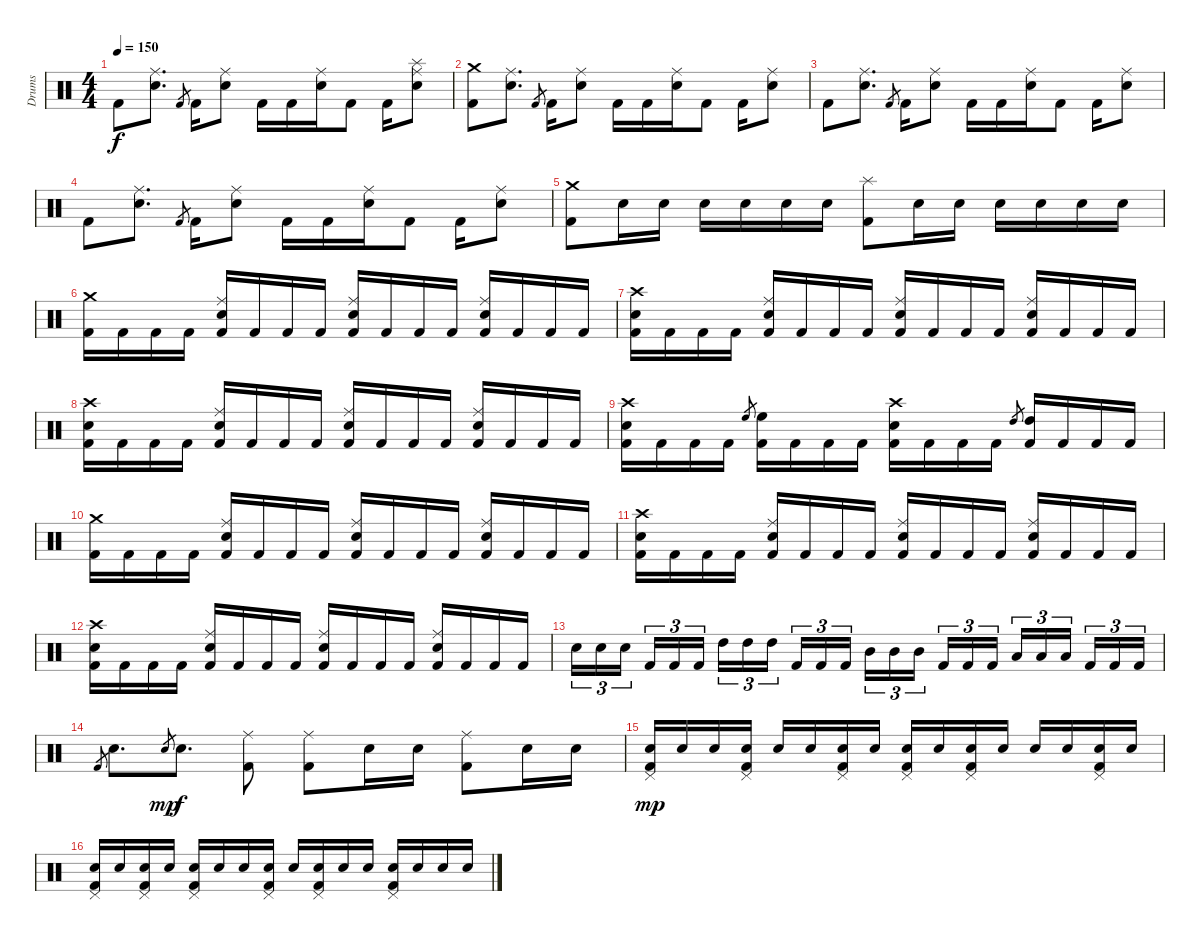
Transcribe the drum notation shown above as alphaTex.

\track ("Drums" "Drums") {instrument percussion}
\staff {score}
\articulation defaults
\ts (4 4)
\tempo 150
\clef neutral
\ks c "Kick (hit) 2".8{dy f}
("Ride (middle)" "Electric Snare (hit)").8{d} "Kick (hit) 2".8{gr} "Kick (hit) 2".16 ("Ride (middle)" "Electric Snare (hit)").8 "Kick (hit) 2".16 "Kick (hit) 2".16 ("Ride (middle)" "Electric Snare (hit)").16 "Kick (hit) 2".8 "Kick (hit) 2".16 ("Ride (middle)" "Splash (hit)" "Electric Snare (hit)").8 |
("Crash medium (hit)" "Kick (hit) 2").8 ("Ride (middle)" "Electric Snare (hit)").8{d} "Kick (hit) 2".8{gr} "Kick (hit) 2".16 ("Ride (middle)" "Electric Snare (hit)").8 "Kick (hit) 2".16 "Kick (hit) 2".16 ("Ride (middle)" "Electric Snare (hit)").16 "Kick (hit) 2".8 "Kick (hit) 2".16 ("Ride (middle)" "Electric Snare (hit)").8 |
"Kick (hit) 2".8 ("Ride (middle)" "Electric Snare (hit)").8{d} "Kick (hit) 2".8{gr} "Kick (hit) 2".16 ("Ride (middle)" "Electric Snare (hit)").8 "Kick (hit) 2".16 "Kick (hit) 2".16 ("Ride (middle)" "Electric Snare (hit)").16 "Kick (hit) 2".8 "Kick (hit) 2".16 ("Ride (middle)" "Electric Snare (hit)").8 |
"Kick (hit) 2".8 ("Ride (middle)" "Electric Snare (hit)").8{d} "Kick (hit) 2".8{gr} "Kick (hit) 2".16 ("Ride (middle)" "Electric Snare (hit)").8 "Kick (hit) 2".16 "Kick (hit) 2".16 ("Ride (middle)" "Electric Snare (hit)").16 "Kick (hit) 2".8 "Kick (hit) 2".16 ("Ride (middle)" "Electric Snare (hit)").8 |
("Crash medium (hit)" "Kick (hit) 2").8 "Electric Snare (hit)".16 "Electric Snare (hit)".16 "Electric Snare (hit)".16 "Electric Snare (hit)".16 "Electric Snare (hit)".16 "Electric Snare (hit)".16 ("Splash (hit)" "Kick (hit) 2").8 "Electric Snare (hit)".16 "Electric Snare (hit)".16 "Electric Snare (hit)".16 "Electric Snare (hit)".16 "Electric Snare (hit)".16 "Electric Snare (hit)".16 |
("Crash medium (hit)" "Kick (hit) 2").16 "Kick (hit) 2".16 "Kick (hit) 2".16 "Kick (hit) 2".16 ("Ride (middle)" "Electric Snare (hit)" "Kick (hit) 2").16 "Kick (hit) 2".16 "Kick (hit) 2".16 "Kick (hit) 2".16 ("Ride (middle)" "Electric Snare (hit)" "Kick (hit) 2").16 "Kick (hit) 2".16 "Kick (hit) 2".16 "Kick (hit) 2".16 ("Ride (middle)" "Electric Snare (hit)" "Kick (hit) 2").16 "Kick (hit) 2".16 "Kick (hit) 2".16 "Kick (hit) 2".16 |
("Crash high (hit)" "Electric Snare (hit)" "Kick (hit) 2").16 "Kick (hit) 2".16 "Kick (hit) 2".16 "Kick (hit) 2".16 ("Ride (middle)" "Electric Snare (hit)" "Kick (hit) 2").16 "Kick (hit) 2".16 "Kick (hit) 2".16 "Kick (hit) 2".16 ("Ride (middle)" "Electric Snare (hit)" "Kick (hit) 2").16 "Kick (hit) 2".16 "Kick (hit) 2".16 "Kick (hit) 2".16 ("Ride (middle)" "Electric Snare (hit)" "Kick (hit) 2").16 "Kick (hit) 2".16 "Kick (hit) 2".16 "Kick (hit) 2".16 |
("Crash high (hit)" "Electric Snare (hit)" "Kick (hit) 2").16 "Kick (hit) 2".16 "Kick (hit) 2".16 "Kick (hit) 2".16 ("Ride (middle)" "Electric Snare (hit)" "Kick (hit) 2").16 "Kick (hit) 2".16 "Kick (hit) 2".16 "Kick (hit) 2".16 ("Ride (middle)" "Electric Snare (hit)" "Kick (hit) 2").16 "Kick (hit) 2".16 "Kick (hit) 2".16 "Kick (hit) 2".16 ("Ride (middle)" "Electric Snare (hit)" "Kick (hit) 2").16 "Kick (hit) 2".16 "Kick (hit) 2".16 "Kick (hit) 2".16 |
("Crash high (hit)" "Electric Snare (hit)" "Kick (hit) 2").16 "Kick (hit) 2".16 "Kick (hit) 2".16 "Kick (hit) 2".16 "High Floor Tom (hit)".8{gr} ("High Floor Tom (hit)" "Kick (hit) 2").16 "Kick (hit) 2".16 "Kick (hit) 2".16 "Kick (hit) 2".16 ("Crash high (hit)" "Electric Snare (hit)" "Kick (hit) 2").16 "Kick (hit) 2".16 "Kick (hit) 2".16 "Kick (hit) 2".16 "High Tom (hit)".8{gr} ("High Tom (hit)" "Kick (hit) 2").16 "Kick (hit) 2".16 "Kick (hit) 2".16 "Kick (hit) 2".16 |
("Crash medium (hit)" "Kick (hit) 2").16 "Kick (hit) 2".16 "Kick (hit) 2".16 "Kick (hit) 2".16 ("Ride (middle)" "Electric Snare (hit)" "Kick (hit) 2").16 "Kick (hit) 2".16 "Kick (hit) 2".16 "Kick (hit) 2".16 ("Ride (middle)" "Electric Snare (hit)" "Kick (hit) 2").16 "Kick (hit) 2".16 "Kick (hit) 2".16 "Kick (hit) 2".16 ("Ride (middle)" "Electric Snare (hit)" "Kick (hit) 2").16 "Kick (hit) 2".16 "Kick (hit) 2".16 "Kick (hit) 2".16 |
("Crash high (hit)" "Electric Snare (hit)" "Kick (hit) 2").16 "Kick (hit) 2".16 "Kick (hit) 2".16 "Kick (hit) 2".16 ("Ride (middle)" "Electric Snare (hit)" "Kick (hit) 2").16 "Kick (hit) 2".16 "Kick (hit) 2".16 "Kick (hit) 2".16 ("Ride (middle)" "Electric Snare (hit)" "Kick (hit) 2").16 "Kick (hit) 2".16 "Kick (hit) 2".16 "Kick (hit) 2".16 ("Ride (middle)" "Electric Snare (hit)" "Kick (hit) 2").16 "Kick (hit) 2".16 "Kick (hit) 2".16 "Kick (hit) 2".16 |
("Crash high (hit)" "Electric Snare (hit)" "Kick (hit) 2").16 "Kick (hit) 2".16 "Kick (hit) 2".16 "Kick (hit) 2".16 ("Ride (middle)" "Electric Snare (hit)" "Kick (hit) 2").16 "Kick (hit) 2".16 "Kick (hit) 2".16 "Kick (hit) 2".16 ("Ride (middle)" "Electric Snare (hit)" "Kick (hit) 2").16 "Kick (hit) 2".16 "Kick (hit) 2".16 "Kick (hit) 2".16 ("Ride (middle)" "Electric Snare (hit)" "Kick (hit) 2").16 "Kick (hit) 2".16 "Kick (hit) 2".16 "Kick (hit) 2".16 |
"Electric Snare (hit)".16{tu (3 2)} "Electric Snare (hit)".16{tu (3 2)} "Electric Snare (hit)".16{tu (3 2) beam splitsecondary} "Kick (hit) 2".16{tu (3 2)} "Kick (hit) 2".16{tu (3 2)} "Kick (hit) 2".16{tu (3 2)} "High Tom (hit)".16{tu (3 2)} "High Tom (hit)".16{tu (3 2)} "High Tom (hit)".16{tu (3 2) beam splitsecondary} "Kick (hit) 2".16{tu (3 2)} "Kick (hit) 2".16{tu (3 2)} "Kick (hit) 2".16{tu (3 2)} "Mid Tom (hit)".16{tu (3 2)} "Mid Tom (hit)".16{tu (3 2)} "Mid Tom (hit)".16{tu (3 2) beam splitsecondary} "Kick (hit) 2".16{tu (3 2)} "Kick (hit) 2".16{tu (3 2)} "Kick (hit) 2".16{tu (3 2)} "Low Tom (hit)".16{tu (3 2)} "Low Tom (hit)".16{tu (3 2)} "Low Tom (hit)".16{tu (3 2) beam splitsecondary} "Kick (hit) 2".16{tu (3 2)} "Kick (hit) 2".16{tu (3 2)} "Kick (hit) 2".16{tu (3 2)} |
"Kick (hit) 2".8{gr} "Electric Snare (hit)".8{d} "Snare (hit) 2".8{gr dy mp} "Electric Snare (hit)".8{d dy f} ("Ride (middle)" "Kick (hit) 2").8 ("Ride (middle)" "Kick (hit) 2").8 "Electric Snare (hit)".16 "Electric Snare (hit)".16 ("Ride (middle)" "Kick (hit) 2").8 "Electric Snare (hit)".16 "Electric Snare (hit)".16 |
("Pedal Hi-Hat (hit)" "Electric Snare (hit)" "Kick (hit) 2").16{dy mp} "Electric Snare (hit)".16 "Electric Snare (hit)".16 ("Pedal Hi-Hat (hit)" "Electric Snare (hit)" "Kick (hit) 2").16 "Electric Snare (hit)".16 "Electric Snare (hit)".16 ("Pedal Hi-Hat (hit)" "Electric Snare (hit)" "Kick (hit) 2").16 "Electric Snare (hit)".16 ("Pedal Hi-Hat (hit)" "Electric Snare (hit)" "Kick (hit) 2").16 "Electric Snare (hit)".16 ("Pedal Hi-Hat (hit)" "Electric Snare (hit)" "Kick (hit) 2").16 "Electric Snare (hit)".16 "Electric Snare (hit)".16 "Electric Snare (hit)".16 ("Pedal Hi-Hat (hit)" "Electric Snare (hit)" "Kick (hit) 2").16 "Electric Snare (hit)".16 |
("Pedal Hi-Hat (hit)" "Electric Snare (hit)" "Kick (hit) 2").16 "Electric Snare (hit)".16 ("Pedal Hi-Hat (hit)" "Electric Snare (hit)" "Kick (hit) 2").16 "Electric Snare (hit)".16 ("Pedal Hi-Hat (hit)" "Electric Snare (hit)" "Kick (hit) 2").16 "Electric Snare (hit)".16 "Electric Snare (hit)".16 ("Pedal Hi-Hat (hit)" "Electric Snare (hit)" "Kick (hit) 2").16 "Electric Snare (hit)".16 ("Pedal Hi-Hat (hit)" "Electric Snare (hit)" "Kick (hit) 2").16 "Electric Snare (hit)".16 "Electric Snare (hit)".16 ("Pedal Hi-Hat (hit)" "Electric Snare (hit)" "Kick (hit) 2").16 "Electric Snare (hit)".16 "Electric Snare (hit)".16 "Electric Snare (hit)".16
